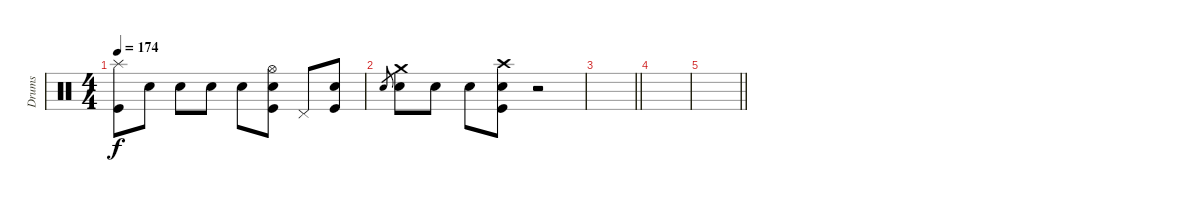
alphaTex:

\track ("Drums" "Drums") {instrument percussion}
\staff {score}
\articulation defaults
\ts (4 4)
\tempo 174
\clef neutral
\ks c
("Splash (hit)" "Kick (hit)").8{dy f} "Electric Snare (hit)".8 "Electric Snare (hit)".8 "Electric Snare (hit)".8 "Electric Snare (hit)".8 ("Hi-Hat (open)" "Electric Snare (hit)" "Kick (hit)").8 "Pedal Hi-Hat (hit)".8 ("Electric Snare (hit)" "Kick (hit)").8 |
"Electric Snare (hit)".8{gr} ("Crash medium (hit)" "Electric Snare (hit)").8 "Electric Snare (hit)".8 "Electric Snare (hit)".8 ("Crash high (hit)" "Electric Snare (hit)" "Kick (hit)").8 r.2 |
\barLineRight lightlight
|
|
\barLineRight lightlight
